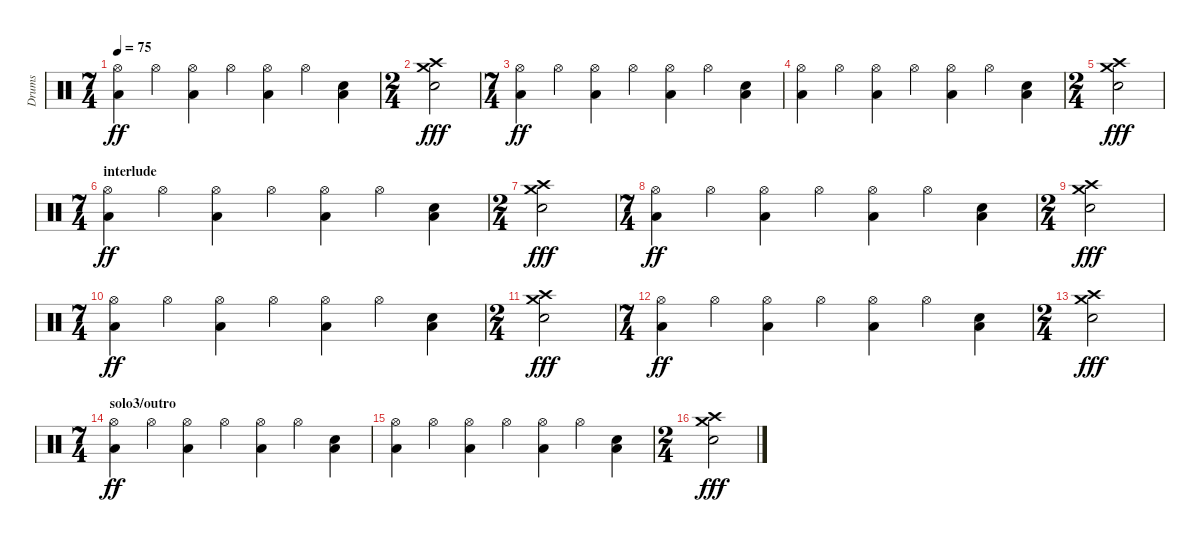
\track ("Drums" "Drums") {instrument percussion}
\staff {score}
\articulation defaults
\ts (7 4)
\tempo 75
\clef neutral
\ks c
("Hi-Hat (open)" "Low Tom (hit)").4{dy ff} "Hi-Hat (open)".4 ("Low Tom (hit)" "Hi-Hat (open)").4 "Hi-Hat (open)".4 ("Hi-Hat (open)" "Low Tom (hit)").4 "Hi-Hat (open)".4 ("Electric Snare (hit)" "Low Tom (hit)").4 |
\ts (2 4)
("Crash high (hit)" "Crash medium (hit)" "Electric Snare (hit)").2{dy fff} |
\ts (7 4)
("Hi-Hat (open)" "Low Tom (hit)").4{dy ff} "Hi-Hat (open)".4 ("Low Tom (hit)" "Hi-Hat (open)").4 "Hi-Hat (open)".4 ("Hi-Hat (open)" "Low Tom (hit)").4 "Hi-Hat (open)".4 ("Electric Snare (hit)" "Low Tom (hit)").4 |
("Hi-Hat (open)" "Low Tom (hit)").4 "Hi-Hat (open)".4 ("Low Tom (hit)" "Hi-Hat (open)").4 "Hi-Hat (open)".4 ("Hi-Hat (open)" "Low Tom (hit)").4 "Hi-Hat (open)".4 ("Electric Snare (hit)" "Low Tom (hit)").4 |
\ts (2 4)
("Crash high (hit)" "Crash medium (hit)" "Electric Snare (hit)").2{dy fff} |
\ts (7 4)
\section ("" "interlude")
("Hi-Hat (open)" "Low Tom (hit)").4{dy ff} "Hi-Hat (open)".4 ("Low Tom (hit)" "Hi-Hat (open)").4 "Hi-Hat (open)".4 ("Hi-Hat (open)" "Low Tom (hit)").4 "Hi-Hat (open)".4 ("Electric Snare (hit)" "Low Tom (hit)").4 |
\ts (2 4)
("Crash high (hit)" "Crash medium (hit)" "Electric Snare (hit)").2{dy fff} |
\ts (7 4)
("Hi-Hat (open)" "Low Tom (hit)").4{dy ff} "Hi-Hat (open)".4 ("Low Tom (hit)" "Hi-Hat (open)").4 "Hi-Hat (open)".4 ("Hi-Hat (open)" "Low Tom (hit)").4 "Hi-Hat (open)".4 ("Electric Snare (hit)" "Low Tom (hit)").4 |
\ts (2 4)
("Crash high (hit)" "Crash medium (hit)" "Electric Snare (hit)").2{dy fff} |
\ts (7 4)
("Hi-Hat (open)" "Low Tom (hit)").4{dy ff} "Hi-Hat (open)".4 ("Low Tom (hit)" "Hi-Hat (open)").4 "Hi-Hat (open)".4 ("Hi-Hat (open)" "Low Tom (hit)").4 "Hi-Hat (open)".4 ("Electric Snare (hit)" "Low Tom (hit)").4 |
\ts (2 4)
("Crash high (hit)" "Crash medium (hit)" "Electric Snare (hit)").2{dy fff} |
\ts (7 4)
("Hi-Hat (open)" "Low Tom (hit)").4{dy ff} "Hi-Hat (open)".4 ("Low Tom (hit)" "Hi-Hat (open)").4 "Hi-Hat (open)".4 ("Hi-Hat (open)" "Low Tom (hit)").4 "Hi-Hat (open)".4 ("Electric Snare (hit)" "Low Tom (hit)").4 |
\ts (2 4)
("Crash high (hit)" "Crash medium (hit)" "Electric Snare (hit)").2{dy fff} |
\ts (7 4)
\section ("" "solo3/outro")
("Hi-Hat (open)" "Low Tom (hit)").4{dy ff} "Hi-Hat (open)".4 ("Low Tom (hit)" "Hi-Hat (open)").4 "Hi-Hat (open)".4 ("Hi-Hat (open)" "Low Tom (hit)").4 "Hi-Hat (open)".4 ("Electric Snare (hit)" "Low Tom (hit)").4 |
("Hi-Hat (open)" "Low Tom (hit)").4 "Hi-Hat (open)".4 ("Low Tom (hit)" "Hi-Hat (open)").4 "Hi-Hat (open)".4 ("Hi-Hat (open)" "Low Tom (hit)").4 "Hi-Hat (open)".4 ("Electric Snare (hit)" "Low Tom (hit)").4 |
\ts (2 4)
("Crash high (hit)" "Crash medium (hit)" "Electric Snare (hit)").2{dy fff}
